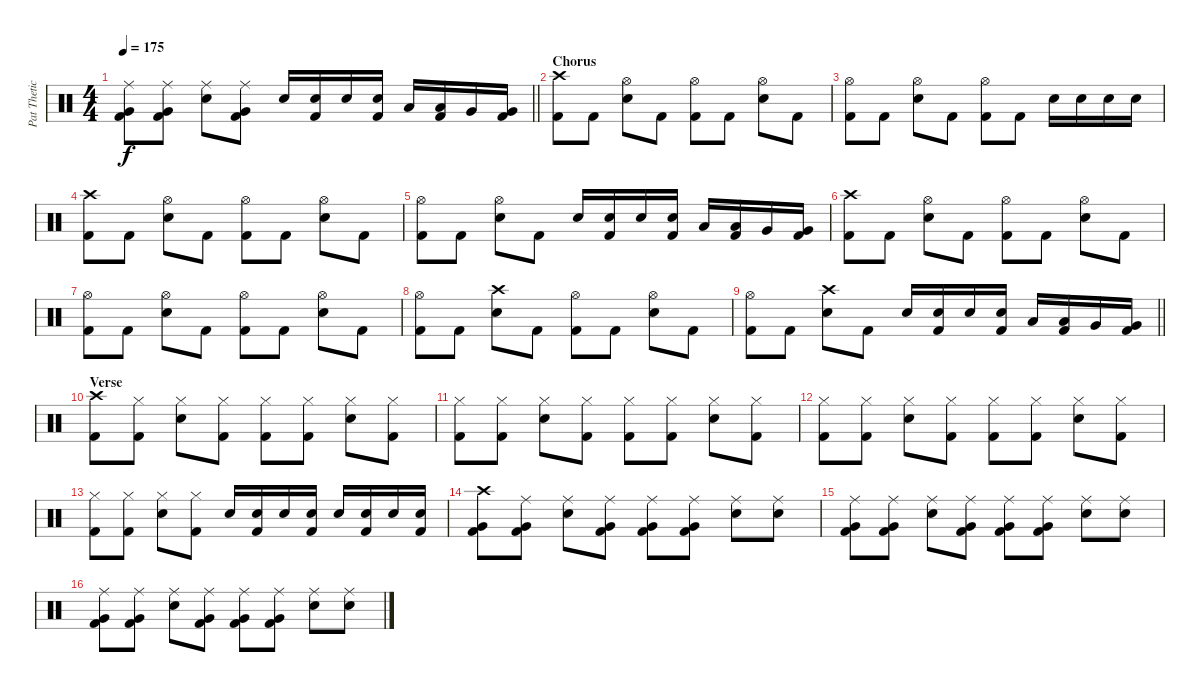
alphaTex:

\track ("Pat Thetic" "Pat Thetic") {instrument percussion}
\staff {score}
\articulation defaults
\ts (4 4)
\tempo 175
\clef neutral
\barLineRight lightlight
\ks c
("Ride (middle)" "Very Low Tom (hit)" "Kick (hit) 2").8{dy f} ("Ride (middle)" "Very Low Tom (hit)" "Kick (hit) 2").8 ("Ride (middle)" "Electric Snare (hit)").8 ("Ride (middle)" "Very Low Tom (hit)" "Kick (hit) 2").8 "Electric Snare (hit)".16 ("Electric Snare (hit)" "Kick (hit) 2").16 "Electric Snare (hit)".16 ("Electric Snare (hit)" "Kick (hit) 2").16 "Low Tom (hit)".16 ("Low Tom (hit)" "Kick (hit) 2").16 "Very Low Tom (hit)".16 ("Very Low Tom (hit)" "Kick (hit) 2").16 |
\section ("" "Chorus")
("Crash high (hit)" "Kick (hit) 2").8 "Kick (hit) 2".8 ("Hi-Hat (open)" "Electric Snare (hit)").8 "Kick (hit) 2".8 ("Hi-Hat (open)" "Kick (hit) 2").8 "Kick (hit) 2".8 ("Hi-Hat (open)" "Electric Snare (hit)").8 "Kick (hit) 2".8 |
("Hi-Hat (open)" "Kick (hit) 2").8 "Kick (hit) 2".8 ("Hi-Hat (open)" "Electric Snare (hit)").8 "Kick (hit) 2".8 ("Hi-Hat (open)" "Kick (hit) 2").8 "Kick (hit) 2".8 "Electric Snare (hit)".16 "Electric Snare (hit)".16 "Electric Snare (hit)".16 "Electric Snare (hit)".16 |
("Crash high (hit)" "Kick (hit) 2").8 "Kick (hit) 2".8 ("Hi-Hat (open)" "Electric Snare (hit)").8 "Kick (hit) 2".8 ("Hi-Hat (open)" "Kick (hit) 2").8 "Kick (hit) 2".8 ("Hi-Hat (open)" "Electric Snare (hit)").8 "Kick (hit) 2".8 |
("Hi-Hat (open)" "Kick (hit) 2").8 "Kick (hit) 2".8 ("Hi-Hat (open)" "Electric Snare (hit)").8 "Kick (hit) 2".8 "Electric Snare (hit)".16 ("Electric Snare (hit)" "Kick (hit) 2").16 "Electric Snare (hit)".16 ("Electric Snare (hit)" "Kick (hit) 2").16 "Low Tom (hit)".16 ("Low Tom (hit)" "Kick (hit) 2").16 "Very Low Tom (hit)".16 ("Very Low Tom (hit)" "Kick (hit) 2").16 |
("Crash high (hit)" "Kick (hit) 2").8 "Kick (hit) 2".8 ("Hi-Hat (open)" "Electric Snare (hit)").8 "Kick (hit) 2".8 ("Hi-Hat (open)" "Kick (hit) 2").8 "Kick (hit) 2".8 ("Hi-Hat (open)" "Electric Snare (hit)").8 "Kick (hit) 2".8 |
("Hi-Hat (open)" "Kick (hit) 2").8 "Kick (hit) 2".8 ("Hi-Hat (open)" "Electric Snare (hit)").8 "Kick (hit) 2".8 ("Hi-Hat (open)" "Kick (hit) 2").8 "Kick (hit) 2".8 ("Hi-Hat (open)" "Electric Snare (hit)").8 "Kick (hit) 2".8 |
("Hi-Hat (open)" "Kick (hit) 2").8 "Kick (hit) 2".8 ("Crash high (hit)" "Electric Snare (hit)").8 "Kick (hit) 2".8 ("Hi-Hat (open)" "Kick (hit) 2").8 "Kick (hit) 2".8 ("Hi-Hat (open)" "Electric Snare (hit)").8 "Kick (hit) 2".8 |
\barLineRight lightlight
("Hi-Hat (open)" "Kick (hit) 2").8 "Kick (hit) 2".8 ("Crash high (hit)" "Electric Snare (hit)").8 "Kick (hit) 2".8 "Electric Snare (hit)".16 ("Electric Snare (hit)" "Kick (hit) 2").16 "Electric Snare (hit)".16 ("Electric Snare (hit)" "Kick (hit) 2").16 "Low Tom (hit)".16 ("Low Tom (hit)" "Kick (hit) 2").16 "Very Low Tom (hit)".16 ("Very Low Tom (hit)" "Kick (hit) 2").16 |
\section ("" "Verse")
("Crash high (hit)" "Kick (hit) 2").8 ("Hi-Hat (closed)" "Kick (hit) 2").8 ("Hi-Hat (closed)" "Electric Snare (hit)").8 ("Hi-Hat (closed)" "Kick (hit) 2").8 ("Hi-Hat (closed)" "Kick (hit) 2").8 ("Hi-Hat (closed)" "Kick (hit) 2").8 ("Hi-Hat (closed)" "Electric Snare (hit)").8 ("Hi-Hat (closed)" "Kick (hit) 2").8 |
("Hi-Hat (closed)" "Kick (hit) 2").8 ("Hi-Hat (closed)" "Kick (hit) 2").8 ("Hi-Hat (closed)" "Electric Snare (hit)").8 ("Hi-Hat (closed)" "Kick (hit) 2").8 ("Hi-Hat (closed)" "Kick (hit) 2").8 ("Hi-Hat (closed)" "Kick (hit) 2").8 ("Hi-Hat (closed)" "Electric Snare (hit)").8 ("Hi-Hat (closed)" "Kick (hit) 2").8 |
("Hi-Hat (closed)" "Kick (hit) 2").8 ("Hi-Hat (closed)" "Kick (hit) 2").8 ("Hi-Hat (closed)" "Electric Snare (hit)").8 ("Hi-Hat (closed)" "Kick (hit) 2").8 ("Hi-Hat (closed)" "Kick (hit) 2").8 ("Hi-Hat (closed)" "Kick (hit) 2").8 ("Hi-Hat (closed)" "Electric Snare (hit)").8 ("Hi-Hat (closed)" "Kick (hit) 2").8 |
("Hi-Hat (closed)" "Kick (hit) 2").8 ("Hi-Hat (closed)" "Kick (hit) 2").8 ("Hi-Hat (closed)" "Electric Snare (hit)").8 ("Hi-Hat (closed)" "Kick (hit) 2").8 "Electric Snare (hit)".16 ("Electric Snare (hit)" "Kick (hit) 2").16 "Electric Snare (hit)".16 ("Electric Snare (hit)" "Kick (hit) 2").16 "Electric Snare (hit)".16 ("Electric Snare (hit)" "Kick (hit) 2").16 "Electric Snare (hit)".16 ("Electric Snare (hit)" "Kick (hit) 2").16 |
("Crash high (hit)" "Very Low Tom (hit)" "Kick (hit) 2").8 ("Ride (middle)" "Very Low Tom (hit)" "Kick (hit) 2").8 ("Ride (middle)" "Electric Snare (hit)").8 ("Ride (middle)" "Very Low Tom (hit)" "Kick (hit) 2").8 ("Ride (middle)" "Very Low Tom (hit)" "Kick (hit) 2").8 ("Ride (middle)" "Very Low Tom (hit)" "Kick (hit) 2").8 ("Ride (middle)" "Electric Snare (hit)").8 ("Ride (middle)" "Electric Snare (hit)").8 |
("Ride (middle)" "Very Low Tom (hit)" "Kick (hit) 2").8 ("Ride (middle)" "Very Low Tom (hit)" "Kick (hit) 2").8 ("Ride (middle)" "Electric Snare (hit)").8 ("Ride (middle)" "Very Low Tom (hit)" "Kick (hit) 2").8 ("Ride (middle)" "Very Low Tom (hit)" "Kick (hit) 2").8 ("Ride (middle)" "Very Low Tom (hit)" "Kick (hit) 2").8 ("Ride (middle)" "Electric Snare (hit)").8 ("Ride (middle)" "Electric Snare (hit)").8 |
("Ride (middle)" "Very Low Tom (hit)" "Kick (hit) 2").8 ("Ride (middle)" "Very Low Tom (hit)" "Kick (hit) 2").8 ("Ride (middle)" "Electric Snare (hit)").8 ("Ride (middle)" "Very Low Tom (hit)" "Kick (hit) 2").8 ("Ride (middle)" "Very Low Tom (hit)" "Kick (hit) 2").8 ("Ride (middle)" "Very Low Tom (hit)" "Kick (hit) 2").8 ("Ride (middle)" "Electric Snare (hit)").8 ("Ride (middle)" "Electric Snare (hit)").8
